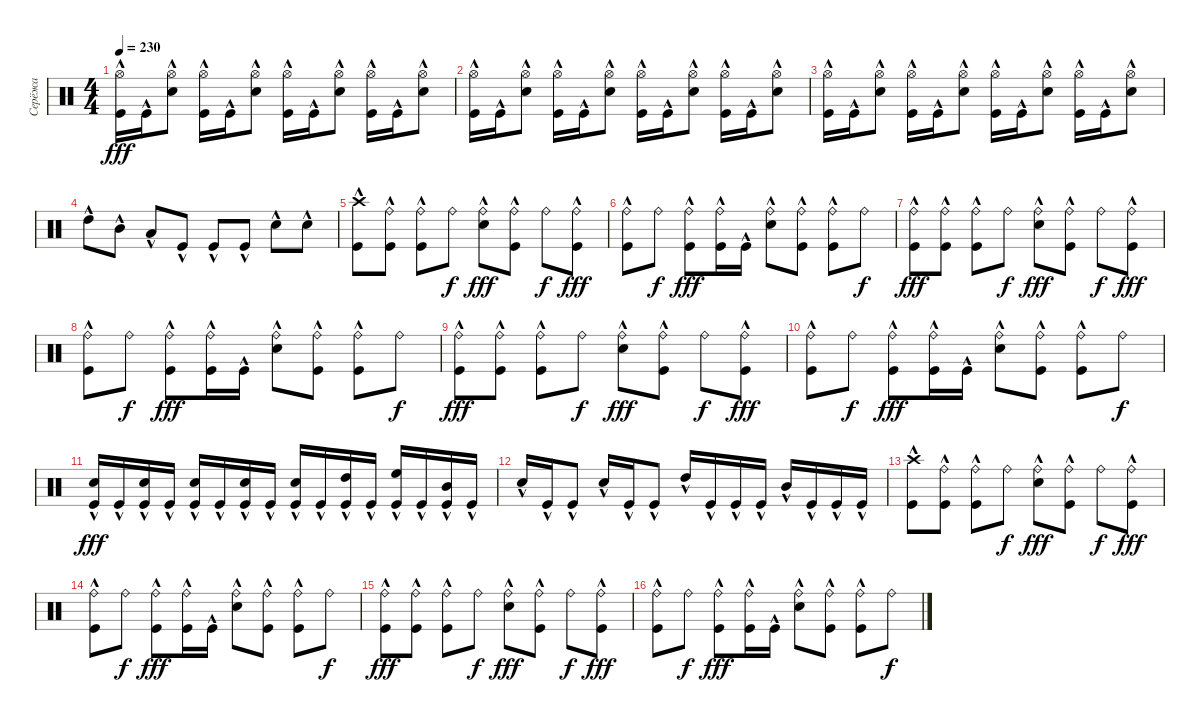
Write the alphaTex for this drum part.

\track ("Серёжа" "Серёжа") {instrument percussion}
\staff {score}
\articulation defaults
\ts (4 4)
\tempo 230
\clef neutral
\ks c
("Hi-Hat (open)" "Kick (hit)"{hac}).16{dy fff} "Kick (hit)"{hac}.16 ("Hi-Hat (open)" "Snare (hit) 2"{hac}).8 ("Hi-Hat (open)" "Kick (hit)"{hac}).16 "Kick (hit)"{hac}.16 ("Hi-Hat (open)" "Snare (hit) 2"{hac}).8 ("Hi-Hat (open)" "Kick (hit)"{hac}).16 "Kick (hit)"{hac}.16 ("Hi-Hat (open)" "Snare (hit) 2"{hac}).8 ("Hi-Hat (open)" "Kick (hit)"{hac}).16 "Kick (hit)"{hac}.16 ("Hi-Hat (open)" "Snare (hit) 2"{hac}).8 |
("Hi-Hat (open)" "Kick (hit)"{hac}).16 "Kick (hit)"{hac}.16 ("Hi-Hat (open)" "Snare (hit) 2"{hac}).8 ("Hi-Hat (open)" "Kick (hit)"{hac}).16 "Kick (hit)"{hac}.16 ("Hi-Hat (open)" "Snare (hit) 2"{hac}).8 ("Hi-Hat (open)" "Kick (hit)"{hac}).16 "Kick (hit)"{hac}.16 ("Hi-Hat (open)" "Snare (hit) 2"{hac}).8 ("Hi-Hat (open)" "Kick (hit)"{hac}).16 "Kick (hit)"{hac}.16 ("Hi-Hat (open)" "Snare (hit) 2"{hac}).8 |
("Hi-Hat (open)" "Kick (hit)"{hac}).16 "Kick (hit)"{hac}.16 ("Hi-Hat (open)" "Snare (hit) 2"{hac}).8 ("Hi-Hat (open)" "Kick (hit)"{hac}).16 "Kick (hit)"{hac}.16 ("Hi-Hat (open)" "Snare (hit) 2"{hac}).8 ("Hi-Hat (open)" "Kick (hit)"{hac}).16 "Kick (hit)"{hac}.16 ("Hi-Hat (open)" "Snare (hit) 2"{hac}).8 ("Hi-Hat (open)" "Kick (hit)"{hac}).16 "Kick (hit)"{hac}.16 ("Hi-Hat (open)" "Snare (hit) 2"{hac}).8 |
"High Tom (hit)"{hac}.8 "Mid Tom (hit)"{hac}.8 "Low Tom (hit)"{hac}.8 "Kick (hit)"{hac}.8 "Kick (hit)"{hac}.8 "Kick (hit)"{hac}.8 "Snare (hit) 2"{hac}.8 "Snare (hit) 2"{hac}.8 |
("Crash high (hit)"{hac} "Kick (hit)"{hac}).8 ("Ride (bell)" "Kick (hit)"{hac}).8 ("Ride (bell)" "Kick (hit)"{hac}).8 "Ride (bell)".8{dy f} ("Ride (bell)" "Snare (hit) 2"{hac}).8{dy fff} ("Ride (bell)" "Kick (hit)"{hac}).8 "Ride (bell)".8{dy f} ("Ride (bell)" "Kick (hit)"{hac}).8{dy fff} |
("Ride (bell)" "Kick (hit)"{hac}).8 "Ride (bell)".8{dy f} ("Ride (bell)" "Kick (hit)"{hac}).8{dy fff} ("Ride (bell)" "Kick (hit)"{hac}).16 "Kick (hit)"{hac}.16 ("Ride (bell)" "Snare (hit) 2"{hac}).8 ("Ride (bell)" "Kick (hit)"{hac}).8 ("Ride (bell)" "Kick (hit)"{hac}).8 "Ride (bell)".8{dy f} |
("Ride (bell)" "Kick (hit)"{hac}).8{dy fff} ("Ride (bell)" "Kick (hit)"{hac}).8 ("Ride (bell)" "Kick (hit)"{hac}).8 "Ride (bell)".8{dy f} ("Ride (bell)" "Snare (hit) 2"{hac}).8{dy fff} ("Ride (bell)" "Kick (hit)"{hac}).8 "Ride (bell)".8{dy f} ("Ride (bell)" "Kick (hit)"{hac}).8{dy fff} |
("Ride (bell)" "Kick (hit)"{hac}).8 "Ride (bell)".8{dy f} ("Ride (bell)" "Kick (hit)"{hac}).8{dy fff} ("Ride (bell)" "Kick (hit)"{hac}).16 "Kick (hit)"{hac}.16 ("Ride (bell)" "Snare (hit) 2"{hac}).8 ("Ride (bell)" "Kick (hit)"{hac}).8 ("Ride (bell)" "Kick (hit)"{hac}).8 "Ride (bell)".8{dy f} |
("Ride (bell)" "Kick (hit)"{hac}).8{dy fff} ("Ride (bell)" "Kick (hit)"{hac}).8 ("Ride (bell)" "Kick (hit)"{hac}).8 "Ride (bell)".8{dy f} ("Ride (bell)" "Snare (hit) 2"{hac}).8{dy fff} ("Ride (bell)" "Kick (hit)"{hac}).8 "Ride (bell)".8{dy f} ("Ride (bell)" "Kick (hit)"{hac}).8{dy fff} |
("Ride (bell)" "Kick (hit)"{hac}).8 "Ride (bell)".8{dy f} ("Ride (bell)" "Kick (hit)"{hac}).8{dy fff} ("Ride (bell)" "Kick (hit)"{hac}).16 "Kick (hit)"{hac}.16 ("Ride (bell)" "Snare (hit) 2"{hac}).8 ("Ride (bell)" "Kick (hit)"{hac}).8 ("Ride (bell)" "Kick (hit)"{hac}).8 "Ride (bell)".8{dy f} |
("Snare (hit) 2"{hac} "Kick (hit)"{hac}).16{dy fff} "Kick (hit)"{hac}.16 ("Snare (hit) 2"{hac} "Kick (hit)"{hac}).16 "Kick (hit)"{hac}.16 ("Snare (hit) 2"{hac} "Kick (hit)"{hac}).16 "Kick (hit)"{hac}.16 ("Snare (hit) 2"{hac} "Kick (hit)"{hac}).16 "Kick (hit)"{hac}.16 ("Snare (hit) 2"{hac} "Kick (hit)"{hac}).16 "Kick (hit)"{hac}.16 ("High Tom (hit)"{hac} "Kick (hit)"{hac}).16 "Kick (hit)"{hac}.16 ("High Floor Tom (hit)"{hac} "Kick (hit)"{hac}).16 "Kick (hit)"{hac}.16 ("Mid Tom (hit)"{hac} "Kick (hit)"{hac}).16 "Kick (hit)"{hac}.16 |
"Snare (hit) 2"{hac}.16 "Kick (hit)"{hac}.16 "Kick (hit)"{hac}.8 "Snare (hit) 2"{hac}.16 "Kick (hit)"{hac}.16 "Kick (hit)"{hac}.8 "High Tom (hit)"{hac}.16 "Kick (hit)"{hac}.16 "Kick (hit)"{hac}.16 "Kick (hit)"{hac}.16 "Mid Tom (hit)"{hac}.16 "Kick (hit)"{hac}.16 "Kick (hit)"{hac}.16 "Kick (hit)"{hac}.16 |
("Crash high (hit)"{hac} "Kick (hit)"{hac}).8 ("Ride (bell)" "Kick (hit)"{hac}).8 ("Ride (bell)" "Kick (hit)"{hac}).8 "Ride (bell)".8{dy f} ("Ride (bell)" "Snare (hit) 2"{hac}).8{dy fff} ("Ride (bell)" "Kick (hit)"{hac}).8 "Ride (bell)".8{dy f} ("Ride (bell)" "Kick (hit)"{hac}).8{dy fff} |
("Ride (bell)" "Kick (hit)"{hac}).8 "Ride (bell)".8{dy f} ("Ride (bell)" "Kick (hit)"{hac}).8{dy fff} ("Ride (bell)" "Kick (hit)"{hac}).16 "Kick (hit)"{hac}.16 ("Ride (bell)" "Snare (hit) 2"{hac}).8 ("Ride (bell)" "Kick (hit)"{hac}).8 ("Ride (bell)" "Kick (hit)"{hac}).8 "Ride (bell)".8{dy f} |
("Ride (bell)" "Kick (hit)"{hac}).8{dy fff} ("Ride (bell)" "Kick (hit)"{hac}).8 ("Ride (bell)" "Kick (hit)"{hac}).8 "Ride (bell)".8{dy f} ("Ride (bell)" "Snare (hit) 2"{hac}).8{dy fff} ("Ride (bell)" "Kick (hit)"{hac}).8 "Ride (bell)".8{dy f} ("Ride (bell)" "Kick (hit)"{hac}).8{dy fff} |
("Ride (bell)" "Kick (hit)"{hac}).8 "Ride (bell)".8{dy f} ("Ride (bell)" "Kick (hit)"{hac}).8{dy fff} ("Ride (bell)" "Kick (hit)"{hac}).16 "Kick (hit)"{hac}.16 ("Ride (bell)" "Snare (hit) 2"{hac}).8 ("Ride (bell)" "Kick (hit)"{hac}).8 ("Ride (bell)" "Kick (hit)"{hac}).8 "Ride (bell)".8{dy f}
